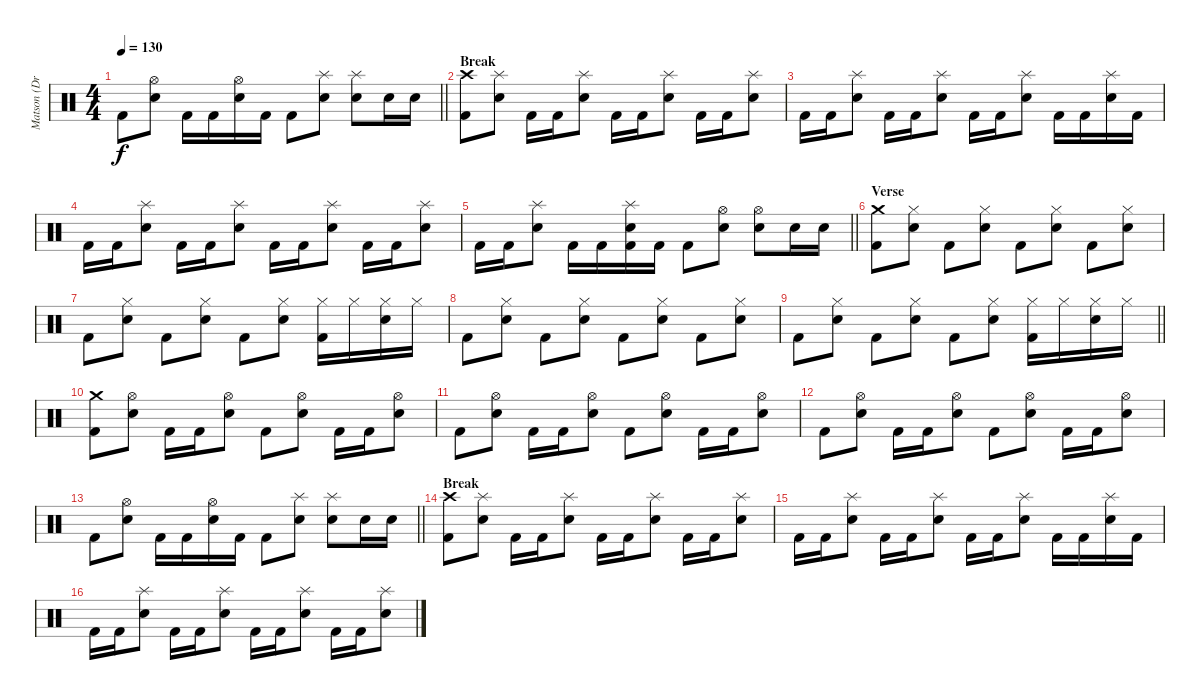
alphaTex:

\track ("Matson (Drums)" "Matson (Dr") {instrument percussion}
\staff {score}
\articulation defaults
\ts (4 4)
\tempo 130
\clef neutral
\barLineRight lightlight
\ks c "Kick (hit) 2".8{dy f}
("Snare (hit) 2" "Hi-Hat (open)").8 "Kick (hit) 2".16 "Kick (hit) 2".16 ("Snare (hit) 2" "Hi-Hat (open)").16 "Kick (hit) 2".16 "Kick (hit) 2".8 ("Snare (hit) 2" "Splash (hit)").8 ("Snare (hit) 2" "Splash (hit)").8 "Snare (hit) 2".16 "Snare (hit) 2".16 |
\section ("" "Break")
("Kick (hit) 2" "Crash high (hit)").8 ("Snare (hit) 2" "Splash (hit)").8 "Kick (hit) 2".16 "Kick (hit) 2".16 ("Snare (hit) 2" "Splash (hit)").8 "Kick (hit) 2".16 "Kick (hit) 2".16 ("Snare (hit) 2" "Splash (hit)").8 "Kick (hit) 2".16 "Kick (hit) 2".16 ("Snare (hit) 2" "Splash (hit)").8 |
"Kick (hit) 2".16 "Kick (hit) 2".16 ("Snare (hit) 2" "Splash (hit)").8 "Kick (hit) 2".16 "Kick (hit) 2".16 ("Snare (hit) 2" "Splash (hit)").8 "Kick (hit) 2".16 "Kick (hit) 2".16 ("Snare (hit) 2" "Splash (hit)").8 "Kick (hit) 2".16 "Kick (hit) 2".16 ("Snare (hit) 2" "Splash (hit)").16 "Kick (hit) 2".16 |
"Kick (hit) 2".16 "Kick (hit) 2".16 ("Snare (hit) 2" "Splash (hit)").8 "Kick (hit) 2".16 "Kick (hit) 2".16 ("Snare (hit) 2" "Splash (hit)").8 "Kick (hit) 2".16 "Kick (hit) 2".16 ("Snare (hit) 2" "Splash (hit)").8 "Kick (hit) 2".16 "Kick (hit) 2".16 ("Snare (hit) 2" "Splash (hit)").8 |
\barLineRight lightlight "Kick (hit) 2".16 "Kick (hit) 2".16
("Snare (hit) 2" "Splash (hit)").8 "Kick (hit) 2".16 "Kick (hit) 2".16 ("Kick (hit) 2" "Snare (hit) 2" "Splash (hit)").16 "Kick (hit) 2".16 "Kick (hit) 2".8 ("Snare (hit) 2" "Hi-Hat (open)").8 ("Snare (hit) 2" "Hi-Hat (open)").8 "Snare (hit) 2".16 "Snare (hit) 2".16 |
\section ("" "Verse")
("Kick (hit) 2" "Crash medium (hit)").8 ("Snare (hit) 2" "Hi-Hat (closed)").8 "Kick (hit) 2".8 ("Snare (hit) 2" "Hi-Hat (closed)").8 "Kick (hit) 2".8 ("Snare (hit) 2" "Hi-Hat (closed)").8 "Kick (hit) 2".8 ("Snare (hit) 2" "Hi-Hat (closed)").8 |
"Kick (hit) 2".8 ("Snare (hit) 2" "Hi-Hat (closed)").8 "Kick (hit) 2".8 ("Snare (hit) 2" "Hi-Hat (closed)").8 "Kick (hit) 2".8 ("Snare (hit) 2" "Hi-Hat (closed)").8 ("Kick (hit) 2" "Hi-Hat (closed)").16 "Hi-Hat (closed)".16 ("Snare (hit) 2" "Hi-Hat (closed)").16 "Hi-Hat (closed)".16 |
"Kick (hit) 2".8 ("Snare (hit) 2" "Hi-Hat (closed)").8 "Kick (hit) 2".8 ("Snare (hit) 2" "Hi-Hat (closed)").8 "Kick (hit) 2".8 ("Snare (hit) 2" "Hi-Hat (closed)").8 "Kick (hit) 2".8 ("Snare (hit) 2" "Hi-Hat (closed)").8 |
\barLineRight lightlight "Kick (hit) 2".8
("Snare (hit) 2" "Hi-Hat (closed)").8 "Kick (hit) 2".8 ("Snare (hit) 2" "Hi-Hat (closed)").8 "Kick (hit) 2".8 ("Snare (hit) 2" "Hi-Hat (closed)").8 ("Kick (hit) 2" "Hi-Hat (closed)").16 "Hi-Hat (closed)".16 ("Snare (hit) 2" "Hi-Hat (closed)").16 "Hi-Hat (closed)".16 |
\section ("" "")
("Kick (hit) 2" "Crash medium (hit)").8 ("Snare (hit) 2" "Hi-Hat (open)").8 "Kick (hit) 2".16 "Kick (hit) 2".16 ("Snare (hit) 2" "Hi-Hat (open)").8 "Kick (hit) 2".8 ("Snare (hit) 2" "Hi-Hat (open)").8 "Kick (hit) 2".16 "Kick (hit) 2".16 ("Snare (hit) 2" "Hi-Hat (open)").8 |
"Kick (hit) 2".8 ("Snare (hit) 2" "Hi-Hat (open)").8 "Kick (hit) 2".16 "Kick (hit) 2".16 ("Snare (hit) 2" "Hi-Hat (open)").8 "Kick (hit) 2".8 ("Snare (hit) 2" "Hi-Hat (open)").8 "Kick (hit) 2".16 "Kick (hit) 2".16 ("Snare (hit) 2" "Hi-Hat (open)").8 |
"Kick (hit) 2".8 ("Snare (hit) 2" "Hi-Hat (open)").8 "Kick (hit) 2".16 "Kick (hit) 2".16 ("Snare (hit) 2" "Hi-Hat (open)").8 "Kick (hit) 2".8 ("Snare (hit) 2" "Hi-Hat (open)").8 "Kick (hit) 2".16 "Kick (hit) 2".16 ("Snare (hit) 2" "Hi-Hat (open)").8 |
\barLineRight lightlight "Kick (hit) 2".8
("Snare (hit) 2" "Hi-Hat (open)").8 "Kick (hit) 2".16 "Kick (hit) 2".16 ("Snare (hit) 2" "Hi-Hat (open)").16 "Kick (hit) 2".16 "Kick (hit) 2".8 ("Snare (hit) 2" "Splash (hit)").8 ("Snare (hit) 2" "Splash (hit)").8 "Snare (hit) 2".16 "Snare (hit) 2".16 |
\section ("" "Break")
("Kick (hit) 2" "Crash high (hit)").8 ("Snare (hit) 2" "Splash (hit)").8 "Kick (hit) 2".16 "Kick (hit) 2".16 ("Snare (hit) 2" "Splash (hit)").8 "Kick (hit) 2".16 "Kick (hit) 2".16 ("Snare (hit) 2" "Splash (hit)").8 "Kick (hit) 2".16 "Kick (hit) 2".16 ("Snare (hit) 2" "Splash (hit)").8 |
"Kick (hit) 2".16 "Kick (hit) 2".16 ("Snare (hit) 2" "Splash (hit)").8 "Kick (hit) 2".16 "Kick (hit) 2".16 ("Snare (hit) 2" "Splash (hit)").8 "Kick (hit) 2".16 "Kick (hit) 2".16 ("Snare (hit) 2" "Splash (hit)").8 "Kick (hit) 2".16 "Kick (hit) 2".16 ("Snare (hit) 2" "Splash (hit)").16 "Kick (hit) 2".16 |
"Kick (hit) 2".16 "Kick (hit) 2".16 ("Snare (hit) 2" "Splash (hit)").8 "Kick (hit) 2".16 "Kick (hit) 2".16 ("Snare (hit) 2" "Splash (hit)").8 "Kick (hit) 2".16 "Kick (hit) 2".16 ("Snare (hit) 2" "Splash (hit)").8 "Kick (hit) 2".16 "Kick (hit) 2".16 ("Snare (hit) 2" "Splash (hit)").8
